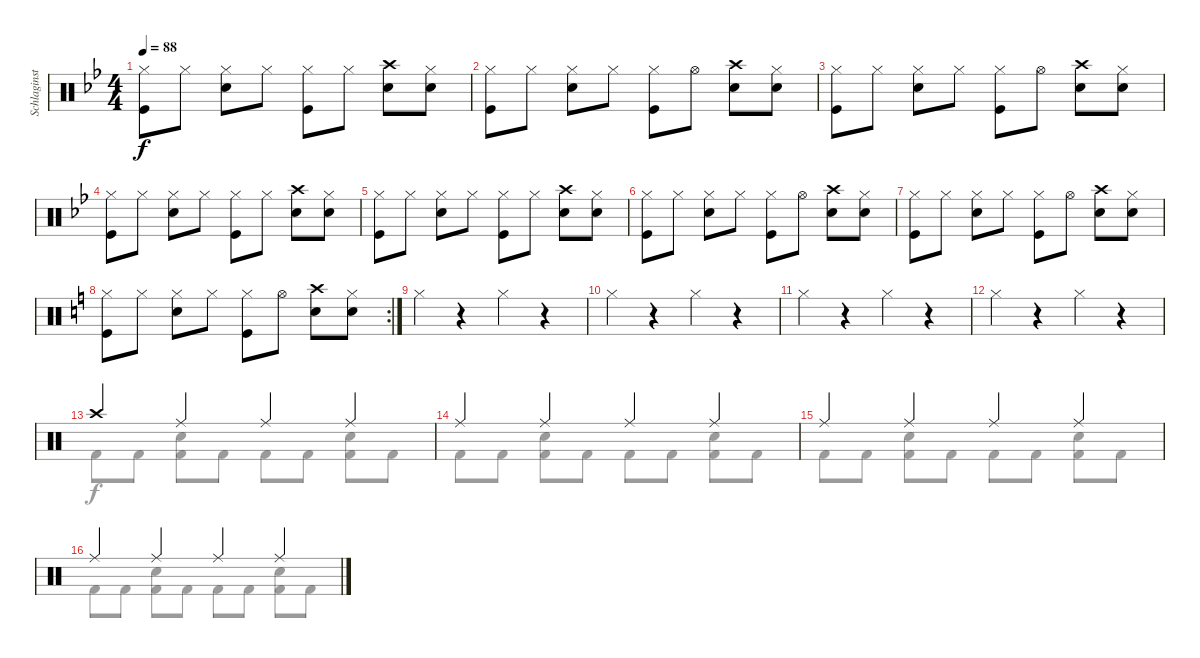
\track ("Schlaginstrumente - Auswahl" "Schlaginst") {instrument percussion}
\staff {score}
\articulation defaults
\voice
\ts (4 4)
\tempo 88
\clef neutral
\ks bb
("Hi-Hat (closed)" "Kick (hit)").8{dy f} "Hi-Hat (closed)".8 ("Hi-Hat (closed)" "Snare (hit) 2").8 "Hi-Hat (closed)".8 ("Hi-Hat (closed)" "Kick (hit)").8 "Hi-Hat (closed)".8 ("Crash high (hit)" "Snare (hit) 2").8 ("Hi-Hat (closed)" "Snare (hit) 2").8 |
("Hi-Hat (closed)" "Kick (hit)").8 "Hi-Hat (closed)".8 ("Hi-Hat (closed)" "Snare (hit) 2").8 "Hi-Hat (closed)".8 ("Hi-Hat (closed)" "Kick (hit)").8 "Hi-Hat (open)".8 ("Crash high (hit)" "Snare (hit) 2").8 ("Hi-Hat (closed)" "Snare (hit) 2").8 |
("Hi-Hat (closed)" "Kick (hit)").8 "Hi-Hat (closed)".8 ("Hi-Hat (closed)" "Snare (hit) 2").8 "Hi-Hat (closed)".8 ("Hi-Hat (closed)" "Kick (hit)").8 "Hi-Hat (open)".8 ("Crash high (hit)" "Snare (hit) 2").8 ("Hi-Hat (closed)" "Snare (hit) 2").8 |
("Hi-Hat (closed)" "Kick (hit)").8 "Hi-Hat (closed)".8 ("Hi-Hat (closed)" "Snare (hit) 2").8 "Hi-Hat (closed)".8 ("Hi-Hat (closed)" "Kick (hit)").8 "Hi-Hat (closed)".8 ("Crash high (hit)" "Snare (hit) 2").8 ("Hi-Hat (closed)" "Snare (hit) 2").8 |
("Hi-Hat (closed)" "Kick (hit)").8 "Hi-Hat (closed)".8 ("Hi-Hat (closed)" "Snare (hit) 2").8 "Hi-Hat (closed)".8 ("Hi-Hat (closed)" "Kick (hit)").8 "Hi-Hat (closed)".8 ("Crash high (hit)" "Snare (hit) 2").8 ("Hi-Hat (closed)" "Snare (hit) 2").8 |
("Hi-Hat (closed)" "Kick (hit)").8 "Hi-Hat (closed)".8 ("Hi-Hat (closed)" "Snare (hit) 2").8 "Hi-Hat (closed)".8 ("Hi-Hat (closed)" "Kick (hit)").8 "Hi-Hat (open)".8 ("Crash high (hit)" "Snare (hit) 2").8 ("Hi-Hat (closed)" "Snare (hit) 2").8 |
("Hi-Hat (closed)" "Kick (hit)").8 "Hi-Hat (closed)".8 ("Hi-Hat (closed)" "Snare (hit) 2").8 "Hi-Hat (closed)".8 ("Hi-Hat (closed)" "Kick (hit)").8 "Hi-Hat (open)".8 ("Crash high (hit)" "Snare (hit) 2").8 ("Hi-Hat (closed)" "Snare (hit) 2").8 |
\rc 2
\ks c
("Hi-Hat (closed)" "Kick (hit)").8 "Hi-Hat (closed)".8 ("Hi-Hat (closed)" "Snare (hit) 2").8 "Hi-Hat (closed)".8 ("Hi-Hat (closed)" "Kick (hit)").8 "Hi-Hat (open)".8 ("Crash high (hit)" "Snare (hit) 2").8 ("Hi-Hat (closed)" "Snare (hit) 2").8 |
"Hi-Hat (closed)".4 r.4 "Hi-Hat (closed)".4 r.4 |
"Hi-Hat (closed)".4 r.4 "Hi-Hat (closed)".4 r.4 |
"Hi-Hat (closed)".4 r.4 "Hi-Hat (closed)".4 r.4 |
"Hi-Hat (closed)".4 r.4 "Hi-Hat (closed)".4 r.4 |
"Crash high (hit)".4{volume 10 balance 8} "Ride (middle)".4 "Ride (middle)".4 "Ride (middle)".4 |
"Ride (middle)".4 "Ride (middle)".4 "Ride (middle)".4 "Ride (middle)".4 |
"Ride (middle)".4 "Ride (middle)".4 "Ride (middle)".4 "Ride (middle)".4 |
"Ride (middle)".4 "Ride (middle)".4 "Ride (middle)".4 "Ride (middle)".4
\voice
\clef neutral
\ottava regular
\simile none
\ks bb
|
|
|
|
|
|
|
\ks c
|
|
|
|
|
"Kick (hit) 2".8 "Kick (hit) 2".8 ("Electric Snare (hit)" "Kick (hit) 2").8 "Kick (hit) 2".8 "Kick (hit) 2".8 "Kick (hit) 2".8 ("Electric Snare (hit)" "Kick (hit) 2").8 "Kick (hit) 2".8 |
"Kick (hit) 2".8 "Kick (hit) 2".8 ("Electric Snare (hit)" "Kick (hit) 2").8 "Kick (hit) 2".8 "Kick (hit) 2".8 "Kick (hit) 2".8 ("Electric Snare (hit)" "Kick (hit) 2").8 "Kick (hit) 2".8 |
"Kick (hit) 2".8 "Kick (hit) 2".8 ("Electric Snare (hit)" "Kick (hit) 2").8 "Kick (hit) 2".8 "Kick (hit) 2".8 "Kick (hit) 2".8 ("Electric Snare (hit)" "Kick (hit) 2").8 "Kick (hit) 2".8 |
"Kick (hit) 2".8 "Kick (hit) 2".8 ("Electric Snare (hit)" "Kick (hit) 2").8 "Kick (hit) 2".8 "Kick (hit) 2".8 "Kick (hit) 2".8 ("Electric Snare (hit)" "Kick (hit) 2").8 "Kick (hit) 2".8
